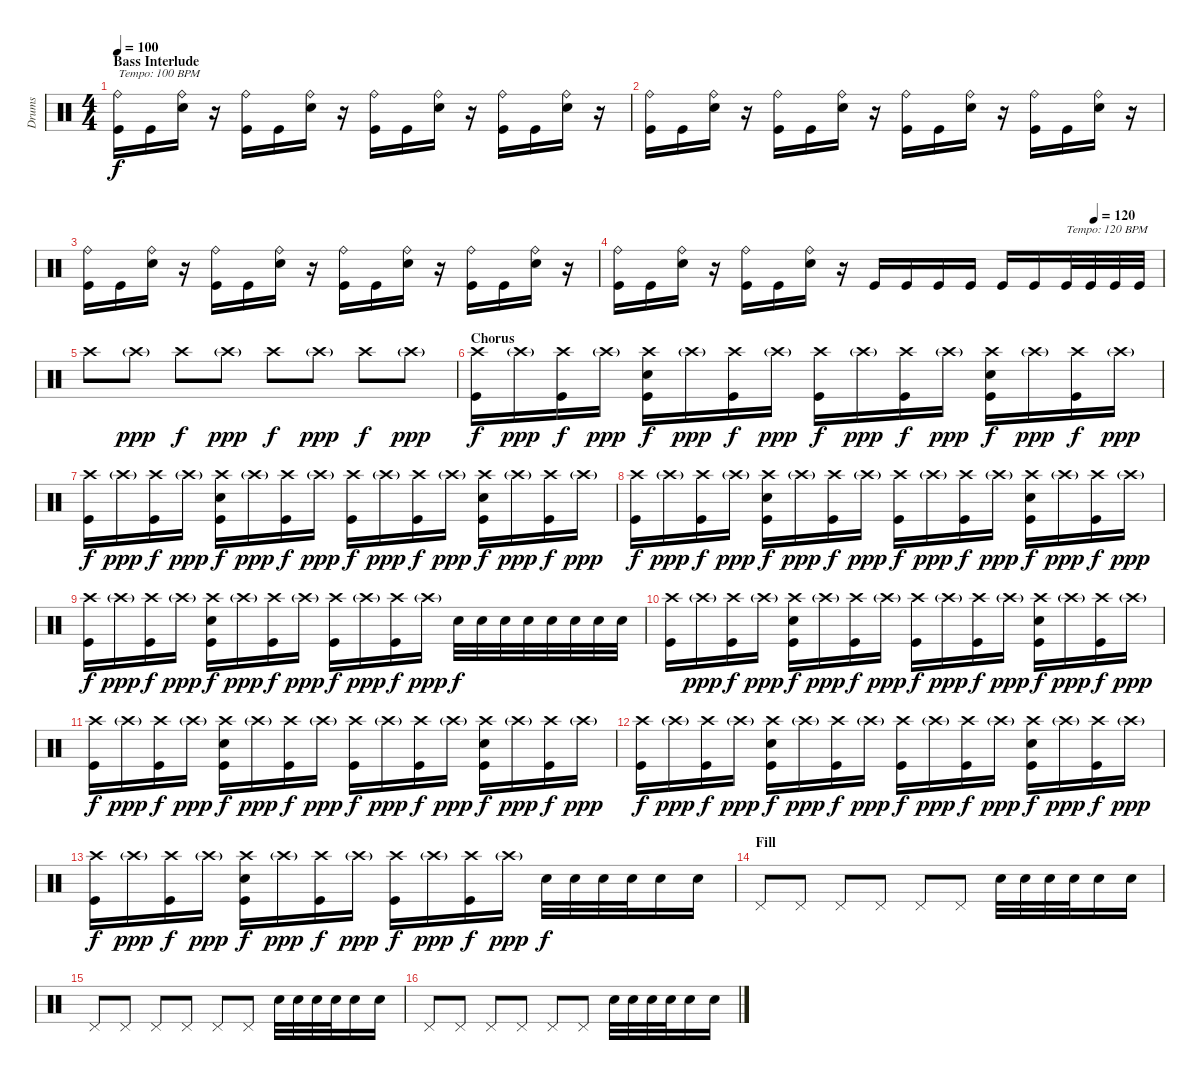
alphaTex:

\track ("Drums" "Drums") {instrument percussion}
\staff {score}
\articulation defaults
\ts (4 4)
\section ("" "Bass Interlude")
\tempo 100
\clef neutral
\ks c
("Ride (bell)" "Kick (hit)").16{txt "Tempo: 100 BPM" dy f} "Kick (hit)".16 ("Ride (bell)" "Electric Snare (hit)").16 r.16 ("Ride (bell)" "Kick (hit)").16 "Kick (hit)".16 ("Ride (bell)" "Electric Snare (hit)").16 r.16 ("Ride (bell)" "Kick (hit)").16 "Kick (hit)".16 ("Ride (bell)" "Electric Snare (hit)").16 r.16 ("Ride (bell)" "Kick (hit)").16 "Kick (hit)".16 ("Ride (bell)" "Electric Snare (hit)").16 r.16 |
("Ride (bell)" "Kick (hit)").16 "Kick (hit)".16 ("Ride (bell)" "Electric Snare (hit)").16 r.16 ("Ride (bell)" "Kick (hit)").16 "Kick (hit)".16 ("Ride (bell)" "Electric Snare (hit)").16 r.16 ("Ride (bell)" "Kick (hit)").16 "Kick (hit)".16 ("Ride (bell)" "Electric Snare (hit)").16 r.16 ("Ride (bell)" "Kick (hit)").16 "Kick (hit)".16 ("Ride (bell)" "Electric Snare (hit)").16 r.16 |
("Ride (bell)" "Kick (hit)").16 "Kick (hit)".16 ("Ride (bell)" "Electric Snare (hit)").16 r.16 ("Ride (bell)" "Kick (hit)").16 "Kick (hit)".16 ("Ride (bell)" "Electric Snare (hit)").16 r.16 ("Ride (bell)" "Kick (hit)").16 "Kick (hit)".16 ("Ride (bell)" "Electric Snare (hit)").16 r.16 ("Ride (bell)" "Kick (hit)").16 "Kick (hit)".16 ("Ride (bell)" "Electric Snare (hit)").16 r.16 |
\tempo (120 0.875)
("Ride (bell)" "Kick (hit)").16 "Kick (hit)".16 ("Ride (bell)" "Electric Snare (hit)").16 r.16 ("Ride (bell)" "Kick (hit)").16 "Kick (hit)".16 ("Ride (bell)" "Electric Snare (hit)").16 r.16 "Kick (hit)".16 "Kick (hit)".16 "Kick (hit)".16 "Kick (hit)".16 "Kick (hit)".16 "Kick (hit)".16 "Kick (hit)".32{txt "Tempo: 120 BPM"} "Kick (hit)".32 "Kick (hit)".32 "Kick (hit)".32 |
"Crash high (hit)".8 "Crash high (hit)"{g}.8{dy ppp} "Crash high (hit)".8{dy f} "Crash high (hit)"{g}.8{dy ppp} "Crash high (hit)".8{dy f} "Crash high (hit)"{g}.8{dy ppp} "Crash high (hit)".8{dy f} "Crash high (hit)"{g}.8{dy ppp} |
\section ("" "Chorus")
("Crash high (hit)" "Kick (hit)").16{dy f} "Crash high (hit)"{g}.16{dy ppp} ("Crash high (hit)" "Kick (hit)").16{dy f} "Crash high (hit)"{g}.16{dy ppp} ("Crash high (hit)" "Electric Snare (hit)" "Kick (hit)").16{dy f} "Crash high (hit)"{g}.16{dy ppp} ("Crash high (hit)" "Kick (hit)").16{dy f} "Crash high (hit)"{g}.16{dy ppp} ("Crash high (hit)" "Kick (hit)").16{dy f} "Crash high (hit)"{g}.16{dy ppp} ("Crash high (hit)" "Kick (hit)").16{dy f} "Crash high (hit)"{g}.16{dy ppp} ("Crash high (hit)" "Electric Snare (hit)" "Kick (hit)").16{dy f} "Crash high (hit)"{g}.16{dy ppp} ("Crash high (hit)" "Kick (hit)").16{dy f} "Crash high (hit)"{g}.16{dy ppp} |
("Crash high (hit)" "Kick (hit)").16{dy f} "Crash high (hit)"{g}.16{dy ppp} ("Crash high (hit)" "Kick (hit)").16{dy f} "Crash high (hit)"{g}.16{dy ppp} ("Crash high (hit)" "Electric Snare (hit)" "Kick (hit)").16{dy f} "Crash high (hit)"{g}.16{dy ppp} ("Crash high (hit)" "Kick (hit)").16{dy f} "Crash high (hit)"{g}.16{dy ppp} ("Crash high (hit)" "Kick (hit)").16{dy f} "Crash high (hit)"{g}.16{dy ppp} ("Crash high (hit)" "Kick (hit)").16{dy f} "Crash high (hit)"{g}.16{dy ppp} ("Crash high (hit)" "Electric Snare (hit)" "Kick (hit)").16{dy f} "Crash high (hit)"{g}.16{dy ppp} ("Crash high (hit)" "Kick (hit)").16{dy f} "Crash high (hit)"{g}.16{dy ppp} |
("Crash high (hit)" "Kick (hit)").16{dy f} "Crash high (hit)"{g}.16{dy ppp} ("Crash high (hit)" "Kick (hit)").16{dy f} "Crash high (hit)"{g}.16{dy ppp} ("Crash high (hit)" "Electric Snare (hit)" "Kick (hit)").16{dy f} "Crash high (hit)"{g}.16{dy ppp} ("Crash high (hit)" "Kick (hit)").16{dy f} "Crash high (hit)"{g}.16{dy ppp} ("Crash high (hit)" "Kick (hit)").16{dy f} "Crash high (hit)"{g}.16{dy ppp} ("Crash high (hit)" "Kick (hit)").16{dy f} "Crash high (hit)"{g}.16{dy ppp} ("Crash high (hit)" "Electric Snare (hit)" "Kick (hit)").16{dy f} "Crash high (hit)"{g}.16{dy ppp} ("Crash high (hit)" "Kick (hit)").16{dy f} "Crash high (hit)"{g}.16{dy ppp} |
("Crash high (hit)" "Kick (hit)").16{dy f} "Crash high (hit)"{g}.16{dy ppp} ("Crash high (hit)" "Kick (hit)").16{dy f} "Crash high (hit)"{g}.16{dy ppp} ("Crash high (hit)" "Electric Snare (hit)" "Kick (hit)").16{dy f} "Crash high (hit)"{g}.16{dy ppp} ("Crash high (hit)" "Kick (hit)").16{dy f} "Crash high (hit)"{g}.16{dy ppp} ("Crash high (hit)" "Kick (hit)").16{dy f} "Crash high (hit)"{g}.16{dy ppp} ("Crash high (hit)" "Kick (hit)").16{dy f} "Crash high (hit)"{g}.16{dy ppp} "Electric Snare (hit)".32{dy f} "Electric Snare (hit)".32 "Electric Snare (hit)".32 "Electric Snare (hit)".32 "Electric Snare (hit)".32 "Electric Snare (hit)".32 "Electric Snare (hit)".32 "Electric Snare (hit)".32 |
("Crash high (hit)" "Kick (hit)").16 "Crash high (hit)"{g}.16{dy ppp} ("Crash high (hit)" "Kick (hit)").16{dy f} "Crash high (hit)"{g}.16{dy ppp} ("Crash high (hit)" "Electric Snare (hit)" "Kick (hit)").16{dy f} "Crash high (hit)"{g}.16{dy ppp} ("Crash high (hit)" "Kick (hit)").16{dy f} "Crash high (hit)"{g}.16{dy ppp} ("Crash high (hit)" "Kick (hit)").16{dy f} "Crash high (hit)"{g}.16{dy ppp} ("Crash high (hit)" "Kick (hit)").16{dy f} "Crash high (hit)"{g}.16{dy ppp} ("Crash high (hit)" "Electric Snare (hit)" "Kick (hit)").16{dy f} "Crash high (hit)"{g}.16{dy ppp} ("Crash high (hit)" "Kick (hit)").16{dy f} "Crash high (hit)"{g}.16{dy ppp} |
("Crash high (hit)" "Kick (hit)").16{dy f} "Crash high (hit)"{g}.16{dy ppp} ("Crash high (hit)" "Kick (hit)").16{dy f} "Crash high (hit)"{g}.16{dy ppp} ("Crash high (hit)" "Electric Snare (hit)" "Kick (hit)").16{dy f} "Crash high (hit)"{g}.16{dy ppp} ("Crash high (hit)" "Kick (hit)").16{dy f} "Crash high (hit)"{g}.16{dy ppp} ("Crash high (hit)" "Kick (hit)").16{dy f} "Crash high (hit)"{g}.16{dy ppp} ("Crash high (hit)" "Kick (hit)").16{dy f} "Crash high (hit)"{g}.16{dy ppp} ("Crash high (hit)" "Electric Snare (hit)" "Kick (hit)").16{dy f} "Crash high (hit)"{g}.16{dy ppp} ("Crash high (hit)" "Kick (hit)").16{dy f} "Crash high (hit)"{g}.16{dy ppp} |
("Crash high (hit)" "Kick (hit)").16{dy f} "Crash high (hit)"{g}.16{dy ppp} ("Crash high (hit)" "Kick (hit)").16{dy f} "Crash high (hit)"{g}.16{dy ppp} ("Crash high (hit)" "Electric Snare (hit)" "Kick (hit)").16{dy f} "Crash high (hit)"{g}.16{dy ppp} ("Crash high (hit)" "Kick (hit)").16{dy f} "Crash high (hit)"{g}.16{dy ppp} ("Crash high (hit)" "Kick (hit)").16{dy f} "Crash high (hit)"{g}.16{dy ppp} ("Crash high (hit)" "Kick (hit)").16{dy f} "Crash high (hit)"{g}.16{dy ppp} ("Crash high (hit)" "Electric Snare (hit)" "Kick (hit)").16{dy f} "Crash high (hit)"{g}.16{dy ppp} ("Crash high (hit)" "Kick (hit)").16{dy f} "Crash high (hit)"{g}.16{dy ppp} |
("Crash high (hit)" "Kick (hit)").16{dy f} "Crash high (hit)"{g}.16{dy ppp} ("Crash high (hit)" "Kick (hit)").16{dy f} "Crash high (hit)"{g}.16{dy ppp} ("Crash high (hit)" "Electric Snare (hit)" "Kick (hit)").16{dy f} "Crash high (hit)"{g}.16{dy ppp} ("Crash high (hit)" "Kick (hit)").16{dy f} "Crash high (hit)"{g}.16{dy ppp} ("Crash high (hit)" "Kick (hit)").16{dy f} "Crash high (hit)"{g}.16{dy ppp} ("Crash high (hit)" "Kick (hit)").16{dy f} "Crash high (hit)"{g}.16{dy ppp} "Electric Snare (hit)".32{dy f} "Electric Snare (hit)".32 "Electric Snare (hit)".32 "Electric Snare (hit)".32 "Electric Snare (hit)".16 "Electric Snare (hit)".16 |
\section ("" "Fill")
"Pedal Hi-Hat (hit)".8 "Pedal Hi-Hat (hit)".8 "Pedal Hi-Hat (hit)".8 "Pedal Hi-Hat (hit)".8 "Pedal Hi-Hat (hit)".8 "Pedal Hi-Hat (hit)".8 "Electric Snare (hit)".32 "Electric Snare (hit)".32 "Electric Snare (hit)".32 "Electric Snare (hit)".32 "Electric Snare (hit)".16 "Electric Snare (hit)".16 |
"Pedal Hi-Hat (hit)".8 "Pedal Hi-Hat (hit)".8 "Pedal Hi-Hat (hit)".8 "Pedal Hi-Hat (hit)".8 "Pedal Hi-Hat (hit)".8 "Pedal Hi-Hat (hit)".8 "Electric Snare (hit)".32 "Electric Snare (hit)".32 "Electric Snare (hit)".32 "Electric Snare (hit)".32 "Electric Snare (hit)".16 "Electric Snare (hit)".16 |
"Pedal Hi-Hat (hit)".8 "Pedal Hi-Hat (hit)".8 "Pedal Hi-Hat (hit)".8 "Pedal Hi-Hat (hit)".8 "Pedal Hi-Hat (hit)".8 "Pedal Hi-Hat (hit)".8 "Electric Snare (hit)".32 "Electric Snare (hit)".32 "Electric Snare (hit)".32 "Electric Snare (hit)".32 "Electric Snare (hit)".16 "Electric Snare (hit)".16
